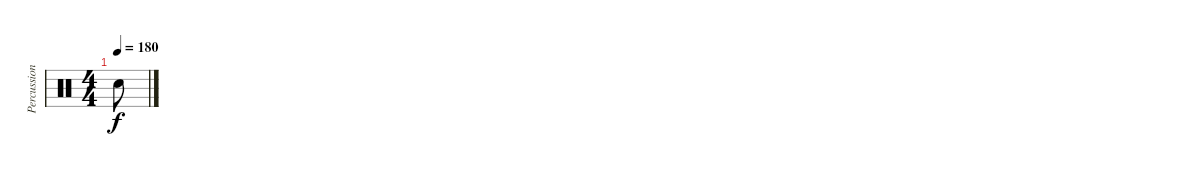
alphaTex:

\track ("Percussion" "Percussion") {instrument percussion}
\staff {score}
\articulation defaults
\ts (4 4)
\tempo 180
\clef neutral
\ks c "Snare (hit)"{t}.8{dy f}
